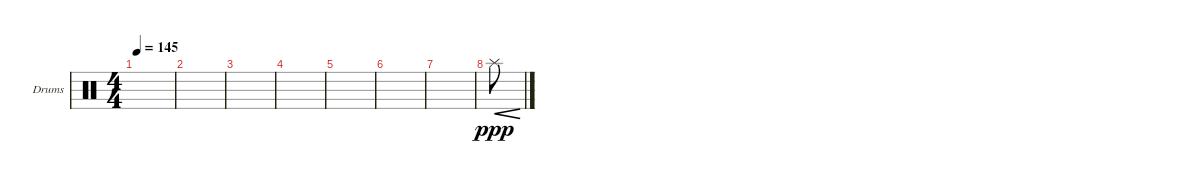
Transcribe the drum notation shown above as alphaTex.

\defaultSystemsLayout 4
\bracketExtendMode groupsimilarinstruments
\firstSystemTrackNameOrientation horizontal
\otherSystemsTrackNameOrientation horizontal
\track ("Drumkit" "Drums") {instrument percussion}
\staff {score}
\articulation defaults
\ts (4 4)
\tempo 145
\clef neutral
\ks c
|
|
|
|
|
|
|
"Splash (hit)".8{cre dy ppp}
